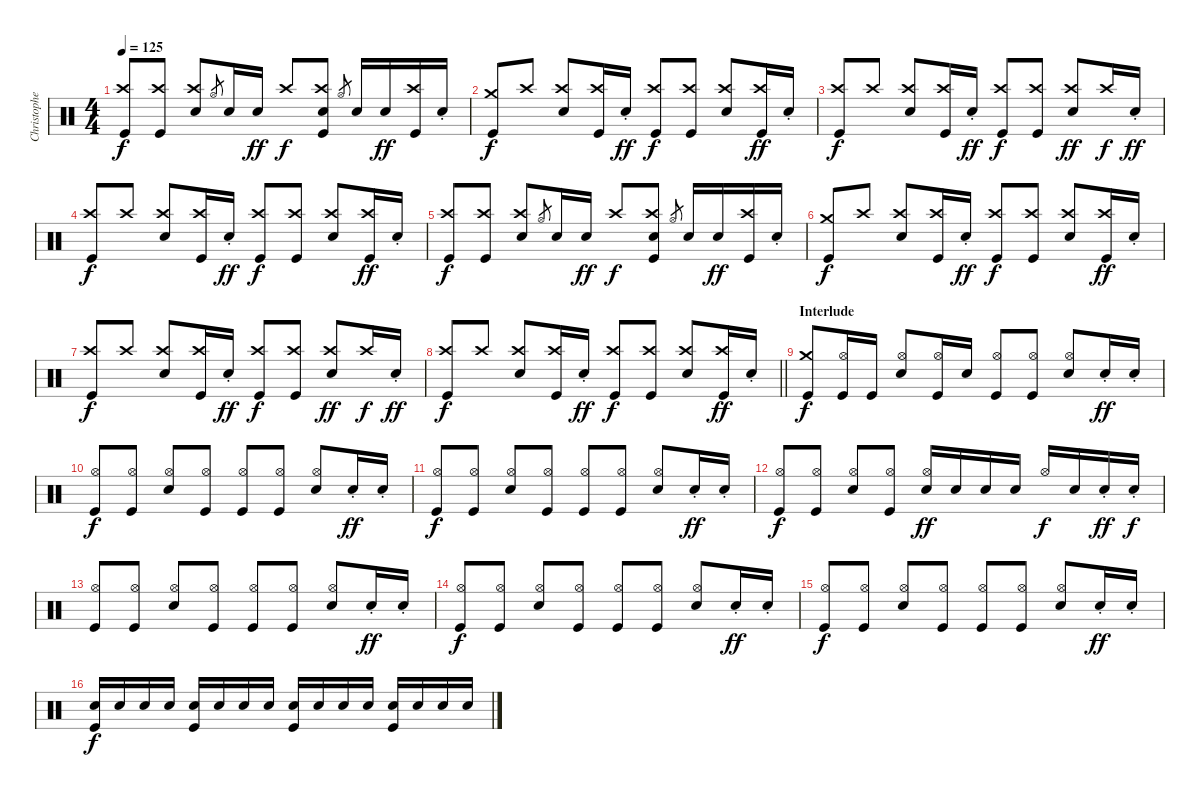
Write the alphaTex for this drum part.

\track ("Christopher - Drums" "Christophe") {instrument percussion}
\staff {score}
\articulation defaults
\ts (4 4)
\tempo 125
\clef neutral
\ks c
("Crash high (hit)" "Kick (hit)").8{dy f beam Up} ("Crash high (hit)" "Kick (hit)").8{beam Up} ("Crash high (hit)" "Electric Snare (hit)").8{beam Up} "Hi-Hat (open)".8{gr} "Electric Snare (hit)".16{beam Up} "Electric Snare (hit)".16{dy ff beam Up} "Crash high (hit)".8{dy f beam Up} ("Crash high (hit)" "Electric Snare (hit)" "Kick (hit)").8{beam Up} "Hi-Hat (open)".8{gr} "Electric Snare (hit)".16{beam Up} "Electric Snare (hit)".16{dy ff beam Up} ("Crash high (hit)" "Kick (hit)").16{beam Up} "Electric Snare (hit)"{st}.16{beam Up} |
("Crash medium (hit)" "Kick (hit)").8{dy f beam Up} "Crash high (hit)".8{beam Up} ("Crash high (hit)" "Electric Snare (hit)").8{beam Up} ("Crash high (hit)" "Kick (hit)").16{beam Up} "Electric Snare (hit)"{st}.16{dy ff beam Up} ("Crash high (hit)" "Kick (hit)").8{dy f beam Up} ("Crash high (hit)" "Kick (hit)").8{beam Up} ("Crash high (hit)" "Electric Snare (hit)").8{beam Up} ("Crash high (hit)" "Kick (hit)").16{dy ff beam Up} "Electric Snare (hit)"{st}.16{beam Up} |
("Crash high (hit)" "Kick (hit)").8{dy f beam Up} "Crash high (hit)".8{beam Up} ("Crash high (hit)" "Electric Snare (hit)").8{beam Up} ("Crash high (hit)" "Kick (hit)").16{beam Up} "Electric Snare (hit)"{st}.16{dy ff beam Up} ("Crash high (hit)" "Kick (hit)").8{dy f beam Up} ("Crash high (hit)" "Kick (hit)").8{beam Up} ("Crash high (hit)" "Electric Snare (hit)").8{dy ff beam Up} "Crash high (hit)".16{dy f beam Up} "Electric Snare (hit)"{st}.16{dy ff beam Up} |
("Crash high (hit)" "Kick (hit)").8{dy f beam Up} "Crash high (hit)".8{beam Up} ("Crash high (hit)" "Electric Snare (hit)").8{beam Up} ("Crash high (hit)" "Kick (hit)").16{beam Up} "Electric Snare (hit)"{st}.16{dy ff beam Up} ("Crash high (hit)" "Kick (hit)").8{dy f beam Up} ("Crash high (hit)" "Kick (hit)").8{beam Up} ("Crash high (hit)" "Electric Snare (hit)").8{beam Up} ("Crash high (hit)" "Kick (hit)").16{dy ff beam Up} "Electric Snare (hit)"{st}.16{beam Up} |
("Crash high (hit)" "Kick (hit)").8{dy f beam Up} ("Crash high (hit)" "Kick (hit)").8{beam Up} ("Crash high (hit)" "Electric Snare (hit)").8{beam Up} "Hi-Hat (open)".8{gr} "Electric Snare (hit)".16{beam Up} "Electric Snare (hit)".16{dy ff beam Up} "Crash high (hit)".8{dy f beam Up} ("Crash high (hit)" "Electric Snare (hit)" "Kick (hit)").8{beam Up} "Hi-Hat (open)".8{gr} "Electric Snare (hit)".16{beam Up} "Electric Snare (hit)".16{dy ff beam Up} ("Crash high (hit)" "Kick (hit)").16{beam Up} "Electric Snare (hit)"{st}.16{beam Up} |
("Crash medium (hit)" "Kick (hit)").8{dy f beam Up} "Crash high (hit)".8{beam Up} ("Crash high (hit)" "Electric Snare (hit)").8{beam Up} ("Crash high (hit)" "Kick (hit)").16{beam Up} "Electric Snare (hit)"{st}.16{dy ff beam Up} ("Crash high (hit)" "Kick (hit)").8{dy f beam Up} ("Crash high (hit)" "Kick (hit)").8{beam Up} ("Crash high (hit)" "Electric Snare (hit)").8{beam Up} ("Crash high (hit)" "Kick (hit)").16{dy ff beam Up} "Electric Snare (hit)"{st}.16{beam Up} |
("Crash high (hit)" "Kick (hit)").8{dy f beam Up} "Crash high (hit)".8{beam Up} ("Crash high (hit)" "Electric Snare (hit)").8{beam Up} ("Crash high (hit)" "Kick (hit)").16{beam Up} "Electric Snare (hit)"{st}.16{dy ff beam Up} ("Crash high (hit)" "Kick (hit)").8{dy f beam Up} ("Crash high (hit)" "Kick (hit)").8{beam Up} ("Crash high (hit)" "Electric Snare (hit)").8{dy ff beam Up} "Crash high (hit)".16{dy f beam Up} "Electric Snare (hit)"{st}.16{dy ff beam Up} |
\barLineRight lightlight
("Crash high (hit)" "Kick (hit)").8{dy f beam Up} "Crash high (hit)".8{beam Up} ("Crash high (hit)" "Electric Snare (hit)").8{beam Up} ("Crash high (hit)" "Kick (hit)").16{beam Up} "Electric Snare (hit)"{st}.16{dy ff beam Up} ("Crash high (hit)" "Kick (hit)").8{dy f beam Up} ("Crash high (hit)" "Kick (hit)").8{beam Up} ("Crash high (hit)" "Electric Snare (hit)").8{beam Up} ("Crash high (hit)" "Kick (hit)").16{dy ff beam Up} "Electric Snare (hit)"{st}.16{beam Up} |
\section ("" "Interlude")
("Crash medium (hit)" "Kick (hit)").8{dy f beam Up} ("Hi-Hat (open)" "Kick (hit)").16{beam Up} "Kick (hit)".16{beam Up} ("Hi-Hat (open)" "Electric Snare (hit)").8{beam Up} ("Hi-Hat (open)" "Kick (hit)").16{beam Up} "Electric Snare (hit)".16{beam Up} ("Hi-Hat (open)" "Kick (hit)").8{beam Up} ("Hi-Hat (open)" "Kick (hit)").8{beam Up} ("Hi-Hat (open)" "Electric Snare (hit)").8{beam Up} "Electric Snare (hit)"{st}.16{dy ff beam Up} "Electric Snare (hit)"{st}.16{beam Up} |
("Hi-Hat (open)" "Kick (hit)").8{dy f beam Up} ("Hi-Hat (open)" "Kick (hit)").8{beam Up} ("Hi-Hat (open)" "Electric Snare (hit)").8{beam Up} ("Hi-Hat (open)" "Kick (hit)").8{beam Up} ("Hi-Hat (open)" "Kick (hit)").8{beam Up} ("Hi-Hat (open)" "Kick (hit)").8{beam Up} ("Hi-Hat (open)" "Electric Snare (hit)").8{beam Up} "Electric Snare (hit)"{st}.16{dy ff beam Up} "Electric Snare (hit)"{st}.16{beam Up} |
("Hi-Hat (open)" "Kick (hit)").8{dy f beam Up} ("Hi-Hat (open)" "Kick (hit)").8{beam Up} ("Hi-Hat (open)" "Electric Snare (hit)").8{beam Up} ("Hi-Hat (open)" "Kick (hit)").8{beam Up} ("Hi-Hat (open)" "Kick (hit)").8{beam Up} ("Hi-Hat (open)" "Kick (hit)").8{beam Up} ("Hi-Hat (open)" "Electric Snare (hit)").8{beam Up} "Electric Snare (hit)"{st}.16{dy ff beam Up} "Electric Snare (hit)"{st}.16{beam Up} |
("Hi-Hat (open)" "Kick (hit)").8{dy f beam Up} ("Hi-Hat (open)" "Kick (hit)").8{beam Up} ("Hi-Hat (open)" "Electric Snare (hit)").8{beam Up} ("Hi-Hat (open)" "Kick (hit)").8{beam Up} ("Hi-Hat (open)" "Electric Snare (hit)").16{dy ff beam Up} "Electric Snare (hit)".16{beam Up} "Electric Snare (hit)".16{beam Up} "Electric Snare (hit)".16{beam Up} "Hi-Hat (open)".16{dy f beam Up} "Electric Snare (hit)".16{beam Up} "Electric Snare (hit)"{st}.16{dy ff beam Up} "Electric Snare (hit)"{st}.16{dy f} |
("Hi-Hat (open)" "Kick (hit)").8{beam Up} ("Hi-Hat (open)" "Kick (hit)").8{beam Up} ("Hi-Hat (open)" "Electric Snare (hit)").8{beam Up} ("Hi-Hat (open)" "Kick (hit)").8{beam Up} ("Hi-Hat (open)" "Kick (hit)").8{beam Up} ("Hi-Hat (open)" "Kick (hit)").8{beam Up} ("Hi-Hat (open)" "Electric Snare (hit)").8{beam Up} "Electric Snare (hit)"{st}.16{dy ff beam Up} "Electric Snare (hit)"{st}.16{beam Up} |
("Hi-Hat (open)" "Kick (hit)").8{dy f beam Up} ("Hi-Hat (open)" "Kick (hit)").8{beam Up} ("Hi-Hat (open)" "Electric Snare (hit)").8{beam Up} ("Hi-Hat (open)" "Kick (hit)").8{beam Up} ("Hi-Hat (open)" "Kick (hit)").8{beam Up} ("Hi-Hat (open)" "Kick (hit)").8{beam Up} ("Hi-Hat (open)" "Electric Snare (hit)").8{beam Up} "Electric Snare (hit)"{st}.16{dy ff beam Up} "Electric Snare (hit)"{st}.16{beam Up} |
("Hi-Hat (open)" "Kick (hit)").8{dy f beam Up} ("Hi-Hat (open)" "Kick (hit)").8{beam Up} ("Hi-Hat (open)" "Electric Snare (hit)").8{beam Up} ("Hi-Hat (open)" "Kick (hit)").8{beam Up} ("Hi-Hat (open)" "Kick (hit)").8{beam Up} ("Hi-Hat (open)" "Kick (hit)").8{beam Up} ("Hi-Hat (open)" "Electric Snare (hit)").8{beam Up} "Electric Snare (hit)"{st}.16{dy ff beam Up} "Electric Snare (hit)"{st}.16{beam Up} |
("Electric Snare (hit)" "Kick (hit)").16{dy f beam Up} "Electric Snare (hit)".16{beam Up} "Electric Snare (hit)".16{beam Up} "Electric Snare (hit)".16{beam Up} ("Electric Snare (hit)" "Kick (hit)").16{beam Up} "Electric Snare (hit)".16{beam Up} "Electric Snare (hit)".16{beam Up} "Electric Snare (hit)".16{beam Up} ("Electric Snare (hit)" "Kick (hit)").16{beam Up} "Electric Snare (hit)".16{beam Up} "Electric Snare (hit)".16{beam Up} "Electric Snare (hit)".16{beam Up} ("Electric Snare (hit)" "Kick (hit)").16{beam Up} "Electric Snare (hit)".16{beam Up} "Electric Snare (hit)".16{beam Up} "Electric Snare (hit)".16{beam Up}
